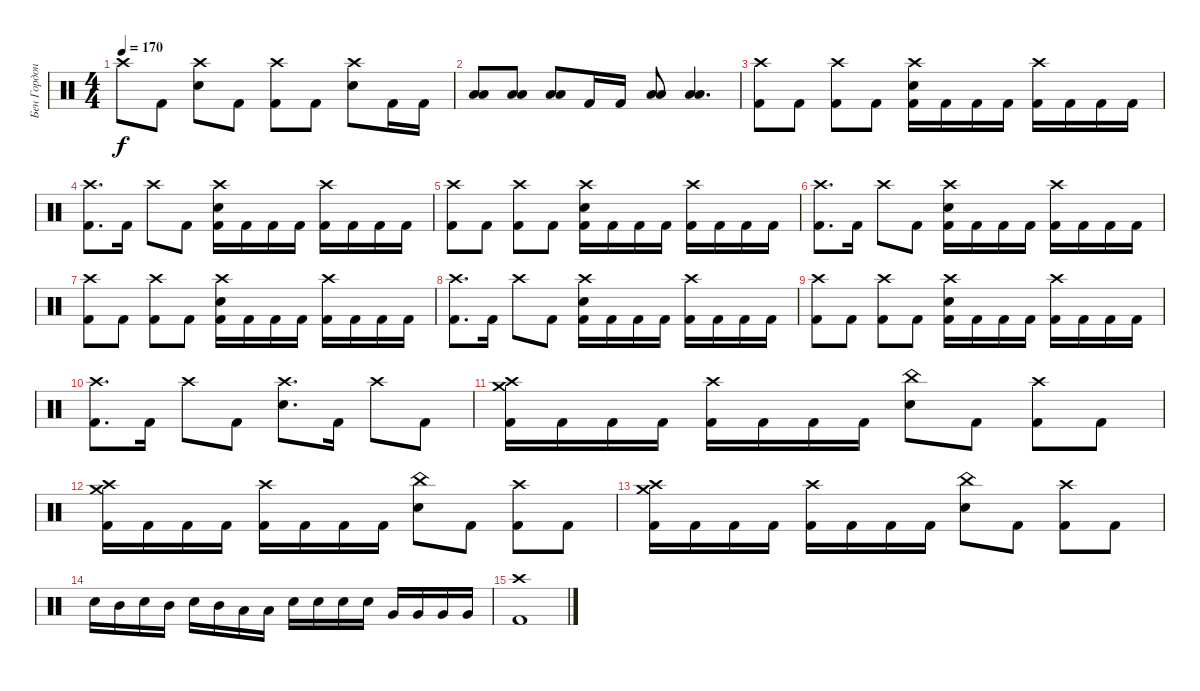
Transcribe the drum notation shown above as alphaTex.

\track ("Бен Гордон" "Бен Гордон") {instrument percussion}
\staff {score}
\articulation defaults
\ts (4 4)
\tempo 170
\clef neutral
\ks c "Crash high (hit)".8{dy f} "Kick (hit) 2".8
("Crash high (hit)" "Electric Snare (hit)").8 "Kick (hit) 2".8 ("Crash high (hit)" "Kick (hit) 2").8 "Kick (hit) 2".8 ("Crash high (hit)" "Electric Snare (hit)").8 "Kick (hit) 2".16 "Kick (hit) 2".16 |
("Low Tom (hit)" "Low Floor Tom (hit)").8 ("Low Tom (hit)" "Low Floor Tom (hit)").8 ("Low Tom (hit)" "Low Floor Tom (hit)").8 "Kick (hit) 2".16 "Kick (hit) 2".16 ("Low Tom (hit)" "Low Floor Tom (hit)").8 ("Low Tom (hit)" "Low Floor Tom (hit)").4{d} |
("Crash high (hit)" "Kick (hit) 2").8 "Kick (hit) 2".8 ("Crash high (hit)" "Kick (hit) 2").8 "Kick (hit) 2".8 ("Crash high (hit)" "Electric Snare (hit)" "Kick (hit) 2").16 "Kick (hit) 2".16 "Kick (hit) 2".16 "Kick (hit) 2".16 ("Crash high (hit)" "Kick (hit) 2").16 "Kick (hit) 2".16 "Kick (hit) 2".16 "Kick (hit) 2".16 |
("Crash high (hit)" "Kick (hit) 2").8{d} "Kick (hit) 2".16 "Crash high (hit)".8 "Kick (hit) 2".8 ("Crash high (hit)" "Electric Snare (hit)" "Kick (hit) 2").16 "Kick (hit) 2".16 "Kick (hit) 2".16 "Kick (hit) 2".16 ("Crash high (hit)" "Kick (hit) 2").16 "Kick (hit) 2".16 "Kick (hit) 2".16 "Kick (hit) 2".16 |
("Crash high (hit)" "Kick (hit) 2").8 "Kick (hit) 2".8 ("Crash high (hit)" "Kick (hit) 2").8 "Kick (hit) 2".8 ("Crash high (hit)" "Electric Snare (hit)" "Kick (hit) 2").16 "Kick (hit) 2".16 "Kick (hit) 2".16 "Kick (hit) 2".16 ("Crash high (hit)" "Kick (hit) 2").16 "Kick (hit) 2".16 "Kick (hit) 2".16 "Kick (hit) 2".16 |
("Crash high (hit)" "Kick (hit) 2").8{d} "Kick (hit) 2".16 "Crash high (hit)".8 "Kick (hit) 2".8 ("Crash high (hit)" "Electric Snare (hit)" "Kick (hit) 2").16 "Kick (hit) 2".16 "Kick (hit) 2".16 "Kick (hit) 2".16 ("Crash high (hit)" "Kick (hit) 2").16 "Kick (hit) 2".16 "Kick (hit) 2".16 "Kick (hit) 2".16 |
("Crash high (hit)" "Kick (hit) 2").8 "Kick (hit) 2".8 ("Crash high (hit)" "Kick (hit) 2").8 "Kick (hit) 2".8 ("Crash high (hit)" "Electric Snare (hit)" "Kick (hit) 2").16 "Kick (hit) 2".16 "Kick (hit) 2".16 "Kick (hit) 2".16 ("Crash high (hit)" "Kick (hit) 2").16 "Kick (hit) 2".16 "Kick (hit) 2".16 "Kick (hit) 2".16 |
("Crash high (hit)" "Kick (hit) 2").8{d} "Kick (hit) 2".16 "Crash high (hit)".8 "Kick (hit) 2".8 ("Crash high (hit)" "Electric Snare (hit)" "Kick (hit) 2").16 "Kick (hit) 2".16 "Kick (hit) 2".16 "Kick (hit) 2".16 ("Crash high (hit)" "Kick (hit) 2").16 "Kick (hit) 2".16 "Kick (hit) 2".16 "Kick (hit) 2".16 |
("Crash high (hit)" "Kick (hit) 2").8 "Kick (hit) 2".8 ("Crash high (hit)" "Kick (hit) 2").8 "Kick (hit) 2".8 ("Crash high (hit)" "Electric Snare (hit)" "Kick (hit) 2").16 "Kick (hit) 2".16 "Kick (hit) 2".16 "Kick (hit) 2".16 ("Crash high (hit)" "Kick (hit) 2").16 "Kick (hit) 2".16 "Kick (hit) 2".16 "Kick (hit) 2".16 |
("Crash high (hit)" "Kick (hit) 2").8{d} "Kick (hit) 2".16 "Crash high (hit)".8 "Kick (hit) 2".8 ("Crash high (hit)" "Electric Snare (hit)").8{d} "Kick (hit) 2".16 "Crash high (hit)".8 "Kick (hit) 2".8 |
("Crash high (hit)" "Crash medium (hit)" "Kick (hit) 2").16 "Kick (hit) 2".16 "Kick (hit) 2".16 "Kick (hit) 2".16 ("Crash high (hit)" "Kick (hit) 2").16 "Kick (hit) 2".16 "Kick (hit) 2".16 "Kick (hit) 2".16 ("China (hit)" "Electric Snare (hit)").8 "Kick (hit) 2".8 ("Crash high (hit)" "Kick (hit) 2").8 "Kick (hit) 2".8 |
("Crash high (hit)" "Crash medium (hit)" "Kick (hit) 2").16 "Kick (hit) 2".16 "Kick (hit) 2".16 "Kick (hit) 2".16 ("Crash high (hit)" "Kick (hit) 2").16 "Kick (hit) 2".16 "Kick (hit) 2".16 "Kick (hit) 2".16 ("China (hit)" "Electric Snare (hit)").8 "Kick (hit) 2".8 ("Crash high (hit)" "Kick (hit) 2").8 "Kick (hit) 2".8 |
("Crash high (hit)" "Crash medium (hit)" "Kick (hit) 2").16 "Kick (hit) 2".16 "Kick (hit) 2".16 "Kick (hit) 2".16 ("Crash high (hit)" "Kick (hit) 2").16 "Kick (hit) 2".16 "Kick (hit) 2".16 "Kick (hit) 2".16 ("China (hit)" "Electric Snare (hit)").8 "Kick (hit) 2".8 ("Crash high (hit)" "Kick (hit) 2").8 "Kick (hit) 2".8 |
"Electric Snare (hit)".16 "Mid Tom (hit)".16 "Electric Snare (hit)".16 "Mid Tom (hit)".16 "Electric Snare (hit)".16 "Mid Tom (hit)".16 "Low Tom (hit)".16 "Low Tom (hit)".16 "Electric Snare (hit)".16 "Electric Snare (hit)".16 "Electric Snare (hit)".16 "Electric Snare (hit)".16 "Very Low Tom (hit)".16 "Very Low Tom (hit)".16 "Very Low Tom (hit)".16 "Very Low Tom (hit)".16 |
("Crash high (hit)" "Kick (hit) 2").1
